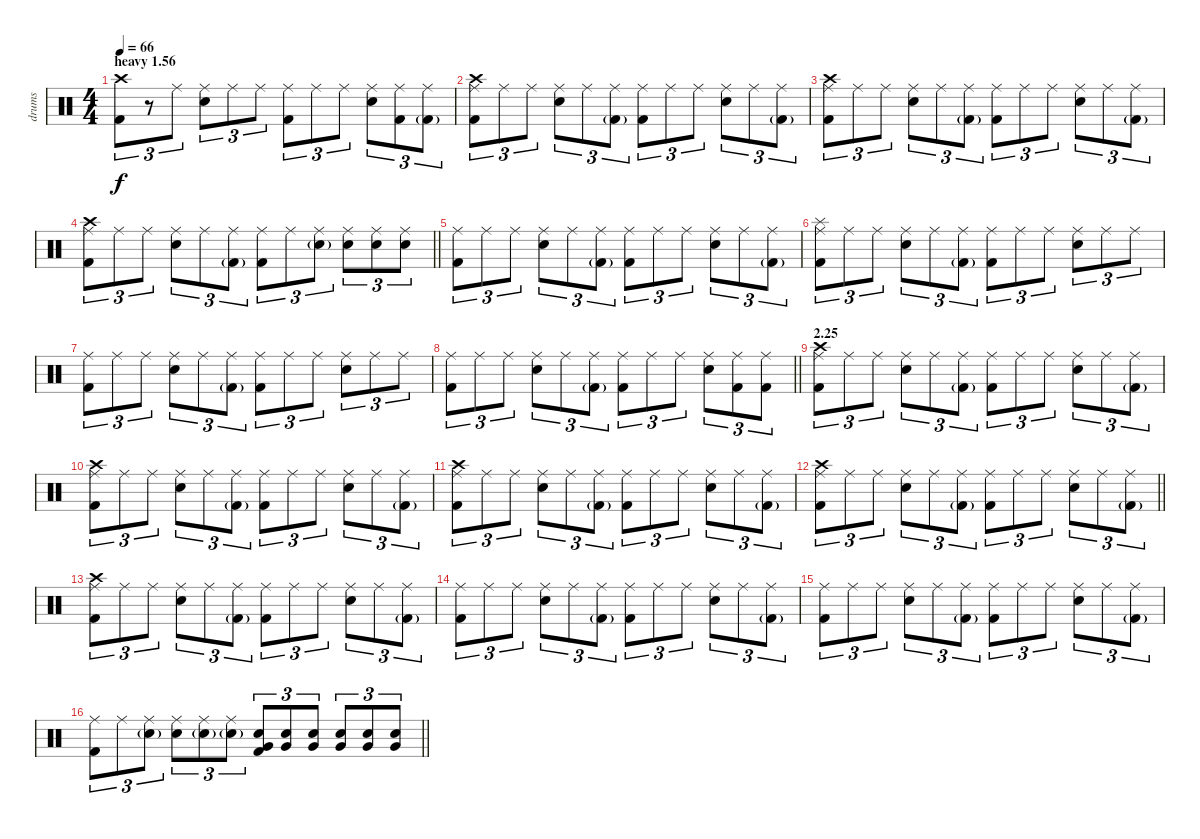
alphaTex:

\track ("drums" "drums") {instrument percussion}
\staff {score}
\articulation defaults
\ts (4 4)
\section ("" "heavy 1.56")
\tempo 66
\clef neutral
\ks c
("Crash high (hit)" "Kick (hit) 2").8{tu (3 2) dy f volume 13} r.8{tu (3 2)} "Ride (middle)".8{tu (3 2)} ("Ride (middle)" "Electric Snare (hit)").8{tu (3 2)} "Ride (middle)".8{tu (3 2)} "Ride (middle)".8{tu (3 2)} ("Ride (middle)" "Kick (hit) 2").8{tu (3 2)} "Ride (middle)".8{tu (3 2)} "Ride (middle)".8{tu (3 2)} ("Ride (middle)" "Electric Snare (hit)").8{tu (3 2)} ("Ride (middle)" "Kick (hit) 2").8{tu (3 2)} ("Ride (middle)" "Kick (hit) 2"{g}).8{tu (3 2)} |
("Ride (middle)" "Crash high (hit)" "Kick (hit) 2").8{tu (3 2)} "Ride (middle)".8{tu (3 2)} "Ride (middle)".8{tu (3 2)} ("Ride (middle)" "Electric Snare (hit)").8{tu (3 2)} "Ride (middle)".8{tu (3 2)} ("Ride (middle)" "Kick (hit) 2"{g}).8{tu (3 2)} ("Ride (middle)" "Kick (hit) 2").8{tu (3 2)} "Ride (middle)".8{tu (3 2)} "Ride (middle)".8{tu (3 2)} ("Ride (middle)" "Electric Snare (hit)").8{tu (3 2)} "Ride (middle)".8{tu (3 2)} ("Ride (middle)" "Kick (hit) 2"{g}).8{tu (3 2)} |
("Ride (middle)" "Crash high (hit)" "Kick (hit) 2").8{tu (3 2)} "Ride (middle)".8{tu (3 2)} "Ride (middle)".8{tu (3 2)} ("Ride (middle)" "Electric Snare (hit)").8{tu (3 2)} "Ride (middle)".8{tu (3 2)} ("Ride (middle)" "Kick (hit) 2"{g}).8{tu (3 2)} ("Ride (middle)" "Kick (hit) 2").8{tu (3 2)} "Ride (middle)".8{tu (3 2)} "Ride (middle)".8{tu (3 2)} ("Ride (middle)" "Electric Snare (hit)").8{tu (3 2)} "Ride (middle)".8{tu (3 2)} ("Ride (middle)" "Kick (hit) 2"{g}).8{tu (3 2)} |
\barLineRight lightlight
("Ride (middle)" "Crash high (hit)" "Kick (hit) 2").8{tu (3 2)} "Ride (middle)".8{tu (3 2)} "Ride (middle)".8{tu (3 2)} ("Ride (middle)" "Electric Snare (hit)").8{tu (3 2)} "Ride (middle)".8{tu (3 2)} ("Ride (middle)" "Kick (hit) 2"{g}).8{tu (3 2)} ("Ride (middle)" "Kick (hit) 2").8{tu (3 2)} "Ride (middle)".8{tu (3 2)} ("Ride (middle)" "Electric Snare (hit)"{g}).8{tu (3 2)} ("Ride (middle)" "Electric Snare (hit)").8{tu (3 2)} ("Ride (middle)" "Electric Snare (hit)").8{tu (3 2)} ("Ride (middle)" "Electric Snare (hit)").8{tu (3 2)} |
("Ride (middle)" "Kick (hit) 2").8{tu (3 2)} "Ride (middle)".8{tu (3 2)} "Ride (middle)".8{tu (3 2)} ("Ride (middle)" "Electric Snare (hit)").8{tu (3 2)} "Ride (middle)".8{tu (3 2)} ("Ride (middle)" "Kick (hit) 2"{g}).8{tu (3 2)} ("Ride (middle)" "Kick (hit) 2").8{tu (3 2)} "Ride (middle)".8{tu (3 2)} "Ride (middle)".8{tu (3 2)} ("Ride (middle)" "Electric Snare (hit)").8{tu (3 2)} "Ride (middle)".8{tu (3 2)} ("Ride (middle)" "Kick (hit) 2"{g}).8{tu (3 2)} |
("Ride (middle)" "Splash (hit)" "Kick (hit) 2").8{tu (3 2)} "Ride (middle)".8{tu (3 2)} "Ride (middle)".8{tu (3 2)} ("Ride (middle)" "Electric Snare (hit)").8{tu (3 2)} "Ride (middle)".8{tu (3 2)} ("Ride (middle)" "Kick (hit) 2"{g}).8{tu (3 2)} ("Ride (middle)" "Kick (hit) 2").8{tu (3 2)} "Ride (middle)".8{tu (3 2)} "Ride (middle)".8{tu (3 2)} ("Ride (middle)" "Electric Snare (hit)").8{tu (3 2)} "Ride (middle)".8{tu (3 2)} "Ride (middle)".8{tu (3 2)} |
("Ride (middle)" "Kick (hit) 2").8{tu (3 2)} "Ride (middle)".8{tu (3 2)} "Ride (middle)".8{tu (3 2)} ("Ride (middle)" "Electric Snare (hit)").8{tu (3 2)} "Ride (middle)".8{tu (3 2)} ("Ride (middle)" "Kick (hit) 2"{g}).8{tu (3 2)} ("Ride (middle)" "Kick (hit) 2").8{tu (3 2)} "Ride (middle)".8{tu (3 2)} "Ride (middle)".8{tu (3 2)} ("Ride (middle)" "Electric Snare (hit)").8{tu (3 2)} "Ride (middle)".8{tu (3 2)} "Ride (middle)".8{tu (3 2)} |
\barLineRight lightlight
("Ride (middle)" "Kick (hit) 2").8{tu (3 2)} "Ride (middle)".8{tu (3 2)} "Ride (middle)".8{tu (3 2)} ("Ride (middle)" "Electric Snare (hit)").8{tu (3 2)} "Ride (middle)".8{tu (3 2)} ("Ride (middle)" "Kick (hit) 2"{g}).8{tu (3 2)} ("Ride (middle)" "Kick (hit) 2").8{tu (3 2)} "Ride (middle)".8{tu (3 2)} "Ride (middle)".8{tu (3 2)} ("Ride (middle)" "Electric Snare (hit)").8{tu (3 2)} ("Ride (middle)" "Kick (hit) 2").8{tu (3 2)} ("Ride (middle)" "Kick (hit) 2").8{tu (3 2)} |
\section ("" "2.25")
("Ride (middle)" "Crash high (hit)" "Kick (hit) 2").8{tu (3 2)} "Ride (middle)".8{tu (3 2)} "Ride (middle)".8{tu (3 2)} ("Ride (middle)" "Electric Snare (hit)").8{tu (3 2)} "Ride (middle)".8{tu (3 2)} ("Ride (middle)" "Kick (hit) 2"{g}).8{tu (3 2)} ("Ride (middle)" "Kick (hit) 2").8{tu (3 2)} "Ride (middle)".8{tu (3 2)} "Ride (middle)".8{tu (3 2)} ("Ride (middle)" "Electric Snare (hit)").8{tu (3 2)} "Ride (middle)".8{tu (3 2)} ("Ride (middle)" "Kick (hit) 2"{g}).8{tu (3 2)} |
("Ride (middle)" "Crash high (hit)" "Kick (hit) 2").8{tu (3 2)} "Ride (middle)".8{tu (3 2)} "Ride (middle)".8{tu (3 2)} ("Ride (middle)" "Electric Snare (hit)").8{tu (3 2)} "Ride (middle)".8{tu (3 2)} ("Ride (middle)" "Kick (hit) 2"{g}).8{tu (3 2)} ("Ride (middle)" "Kick (hit) 2").8{tu (3 2)} "Ride (middle)".8{tu (3 2)} "Ride (middle)".8{tu (3 2)} ("Ride (middle)" "Electric Snare (hit)").8{tu (3 2)} "Ride (middle)".8{tu (3 2)} ("Ride (middle)" "Kick (hit) 2"{g}).8{tu (3 2)} |
("Ride (middle)" "Crash high (hit)" "Kick (hit) 2").8{tu (3 2)} "Ride (middle)".8{tu (3 2)} "Ride (middle)".8{tu (3 2)} ("Ride (middle)" "Electric Snare (hit)").8{tu (3 2)} "Ride (middle)".8{tu (3 2)} ("Ride (middle)" "Kick (hit) 2"{g}).8{tu (3 2)} ("Ride (middle)" "Kick (hit) 2").8{tu (3 2)} "Ride (middle)".8{tu (3 2)} "Ride (middle)".8{tu (3 2)} ("Ride (middle)" "Electric Snare (hit)").8{tu (3 2)} "Ride (middle)".8{tu (3 2)} ("Ride (middle)" "Kick (hit) 2"{g}).8{tu (3 2)} |
\barLineRight lightlight
("Ride (middle)" "Crash high (hit)" "Kick (hit) 2").8{tu (3 2)} "Ride (middle)".8{tu (3 2)} "Ride (middle)".8{tu (3 2)} ("Ride (middle)" "Electric Snare (hit)").8{tu (3 2)} "Ride (middle)".8{tu (3 2)} ("Ride (middle)" "Kick (hit) 2"{g}).8{tu (3 2)} ("Ride (middle)" "Kick (hit) 2").8{tu (3 2)} "Ride (middle)".8{tu (3 2)} "Ride (middle)".8{tu (3 2)} ("Ride (middle)" "Electric Snare (hit)").8{tu (3 2)} "Ride (middle)".8{tu (3 2)} ("Ride (middle)" "Kick (hit) 2"{g}).8{tu (3 2)} |
("Ride (middle)" "Crash high (hit)" "Kick (hit) 2").8{tu (3 2)} "Ride (middle)".8{tu (3 2)} "Ride (middle)".8{tu (3 2)} ("Ride (middle)" "Electric Snare (hit)").8{tu (3 2)} "Ride (middle)".8{tu (3 2)} ("Ride (middle)" "Kick (hit) 2"{g}).8{tu (3 2)} ("Ride (middle)" "Kick (hit) 2").8{tu (3 2)} "Ride (middle)".8{tu (3 2)} "Ride (middle)".8{tu (3 2)} ("Ride (middle)" "Electric Snare (hit)").8{tu (3 2)} "Ride (middle)".8{tu (3 2)} ("Ride (middle)" "Kick (hit) 2"{g}).8{tu (3 2)} |
("Ride (middle)" "Kick (hit) 2").8{tu (3 2)} "Ride (middle)".8{tu (3 2)} "Ride (middle)".8{tu (3 2)} ("Ride (middle)" "Electric Snare (hit)").8{tu (3 2)} "Ride (middle)".8{tu (3 2)} ("Ride (middle)" "Kick (hit) 2"{g}).8{tu (3 2)} ("Ride (middle)" "Kick (hit) 2").8{tu (3 2)} "Ride (middle)".8{tu (3 2)} "Ride (middle)".8{tu (3 2)} ("Ride (middle)" "Electric Snare (hit)").8{tu (3 2)} "Ride (middle)".8{tu (3 2)} ("Ride (middle)" "Kick (hit) 2"{g}).8{tu (3 2)} |
("Ride (middle)" "Kick (hit) 2").8{tu (3 2)} "Ride (middle)".8{tu (3 2)} "Ride (middle)".8{tu (3 2)} ("Ride (middle)" "Electric Snare (hit)").8{tu (3 2)} "Ride (middle)".8{tu (3 2)} ("Ride (middle)" "Kick (hit) 2"{g}).8{tu (3 2)} ("Ride (middle)" "Kick (hit) 2").8{tu (3 2)} "Ride (middle)".8{tu (3 2)} "Ride (middle)".8{tu (3 2)} ("Ride (middle)" "Electric Snare (hit)").8{tu (3 2)} "Ride (middle)".8{tu (3 2)} ("Ride (middle)" "Kick (hit) 2"{g}).8{tu (3 2)} |
\barLineRight lightlight
("Ride (middle)" "Kick (hit) 2").8{tu (3 2)} "Ride (middle)".8{tu (3 2)} ("Ride (middle)" "Electric Snare (hit)"{g}).8{tu (3 2)} ("Ride (middle)" "Electric Snare (hit)").8{tu (3 2)} ("Ride (middle)" "Electric Snare (hit)"{g}).8{tu (3 2)} ("Ride (middle)" "Electric Snare (hit)"{g}).8{tu (3 2)} ("Very Low Tom (hit)" "Electric Snare (hit)" "Kick (hit) 2").8{tu (3 2)} ("Very Low Tom (hit)" "Electric Snare (hit)").8{tu (3 2)} ("Very Low Tom (hit)" "Electric Snare (hit)").8{tu (3 2)} ("Very Low Tom (hit)" "Electric Snare (hit)").8{tu (3 2)} ("Very Low Tom (hit)" "Electric Snare (hit)").8{tu (3 2)} ("Very Low Tom (hit)" "Electric Snare (hit)").8{tu (3 2)}
